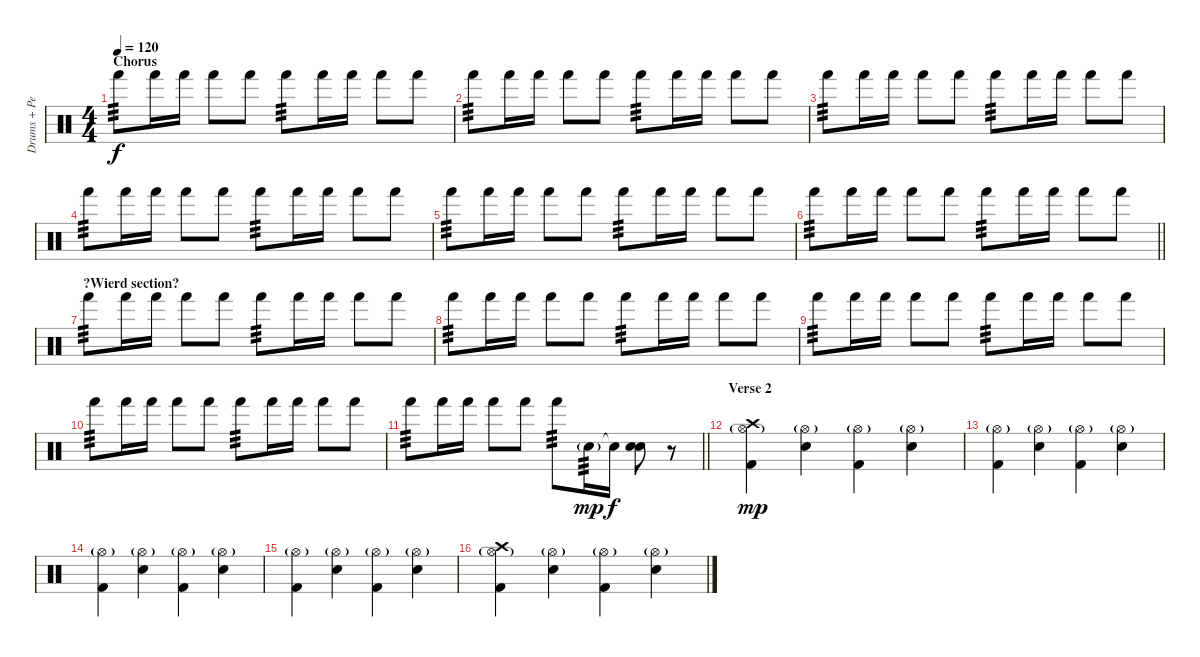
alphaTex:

\track ("Drums + Percussion" "Drums + Pe") {instrument percussion}
\staff {score}
\articulation defaults
\ts (4 4)
\section ("" "Chorus")
\tempo 120
\clef neutral
\ks c "Hand (hit)".8{tp 3 dy f} "Hand (hit)".16 "Hand (hit)".16 "Hand (hit)".8 "Hand (hit)".8 "Hand (hit)".8{tp 3} "Hand (hit)".16 "Hand (hit)".16 "Hand (hit)".8 "Hand (hit)".8
|
"Hand (hit)".8{tp 3} "Hand (hit)".16 "Hand (hit)".16 "Hand (hit)".8 "Hand (hit)".8 "Hand (hit)".8{tp 3} "Hand (hit)".16 "Hand (hit)".16 "Hand (hit)".8 "Hand (hit)".8 |
"Hand (hit)".8{tp 3} "Hand (hit)".16 "Hand (hit)".16 "Hand (hit)".8 "Hand (hit)".8 "Hand (hit)".8{tp 3} "Hand (hit)".16 "Hand (hit)".16 "Hand (hit)".8 "Hand (hit)".8 |
"Hand (hit)".8{tp 3} "Hand (hit)".16 "Hand (hit)".16 "Hand (hit)".8 "Hand (hit)".8 "Hand (hit)".8{tp 3} "Hand (hit)".16 "Hand (hit)".16 "Hand (hit)".8 "Hand (hit)".8 |
"Hand (hit)".8{tp 3} "Hand (hit)".16 "Hand (hit)".16 "Hand (hit)".8 "Hand (hit)".8 "Hand (hit)".8{tp 3} "Hand (hit)".16 "Hand (hit)".16 "Hand (hit)".8 "Hand (hit)".8 |
\barLineRight lightlight "Hand (hit)".8{tp 3} "Hand (hit)".16 "Hand (hit)".16 "Hand (hit)".8 "Hand (hit)".8 "Hand (hit)".8{tp 3} "Hand (hit)".16 "Hand (hit)".16 "Hand (hit)".8 "Hand (hit)".8
|
\section ("" "?Wierd section?")
"Hand (hit)".8{tp 3} "Hand (hit)".16 "Hand (hit)".16 "Hand (hit)".8 "Hand (hit)".8 "Hand (hit)".8{tp 3} "Hand (hit)".16 "Hand (hit)".16 "Hand (hit)".8 "Hand (hit)".8 |
"Hand (hit)".8{tp 3} "Hand (hit)".16 "Hand (hit)".16 "Hand (hit)".8 "Hand (hit)".8 "Hand (hit)".8{tp 3} "Hand (hit)".16 "Hand (hit)".16 "Hand (hit)".8 "Hand (hit)".8 |
"Hand (hit)".8{tp 3} "Hand (hit)".16 "Hand (hit)".16 "Hand (hit)".8 "Hand (hit)".8 "Hand (hit)".8{tp 3} "Hand (hit)".16 "Hand (hit)".16 "Hand (hit)".8 "Hand (hit)".8 |
"Hand (hit)".8{tp 3} "Hand (hit)".16 "Hand (hit)".16 "Hand (hit)".8 "Hand (hit)".8 "Hand (hit)".8{tp 3} "Hand (hit)".16 "Hand (hit)".16 "Hand (hit)".8 "Hand (hit)".8 |
\barLineRight lightlight "Hand (hit)".8{tp 3} "Hand (hit)".16 "Hand (hit)".16 "Hand (hit)".8 "Hand (hit)".8 "Hand (hit)".8{tp 3} "Electric Snare (hit)"{g}.16{tp 3 dy mp} "Snare (hit)"{t}.16{dy f}
("Electric Snare (hit)" "Electric Snare (hit)").8 r.8 |
\section ("" "Verse 2")
("Hi-Hat (open)"{g} "Crash high (hit)" "Kick (hit) 2").4{dy mp} ("Hi-Hat (open)"{g} "Electric Snare (hit)").4 ("Hi-Hat (open)"{g} "Kick (hit) 2").4 ("Hi-Hat (open)"{g} "Electric Snare (hit)").4 |
("Hi-Hat (open)"{g} "Kick (hit) 2").4 ("Hi-Hat (open)"{g} "Electric Snare (hit)").4 ("Hi-Hat (open)"{g} "Kick (hit) 2").4 ("Hi-Hat (open)"{g} "Electric Snare (hit)").4 |
("Hi-Hat (open)"{g} "Kick (hit) 2").4 ("Hi-Hat (open)"{g} "Electric Snare (hit)").4 ("Hi-Hat (open)"{g} "Kick (hit) 2").4 ("Hi-Hat (open)"{g} "Electric Snare (hit)").4 |
("Hi-Hat (open)"{g} "Kick (hit) 2").4 ("Hi-Hat (open)"{g} "Electric Snare (hit)").4 ("Hi-Hat (open)"{g} "Kick (hit) 2").4 ("Hi-Hat (open)"{g} "Electric Snare (hit)").4 |
("Hi-Hat (open)"{g} "Crash high (hit)" "Kick (hit) 2").4 ("Hi-Hat (open)"{g} "Electric Snare (hit)").4 ("Hi-Hat (open)"{g} "Kick (hit) 2").4 ("Hi-Hat (open)"{g} "Electric Snare (hit)").4
